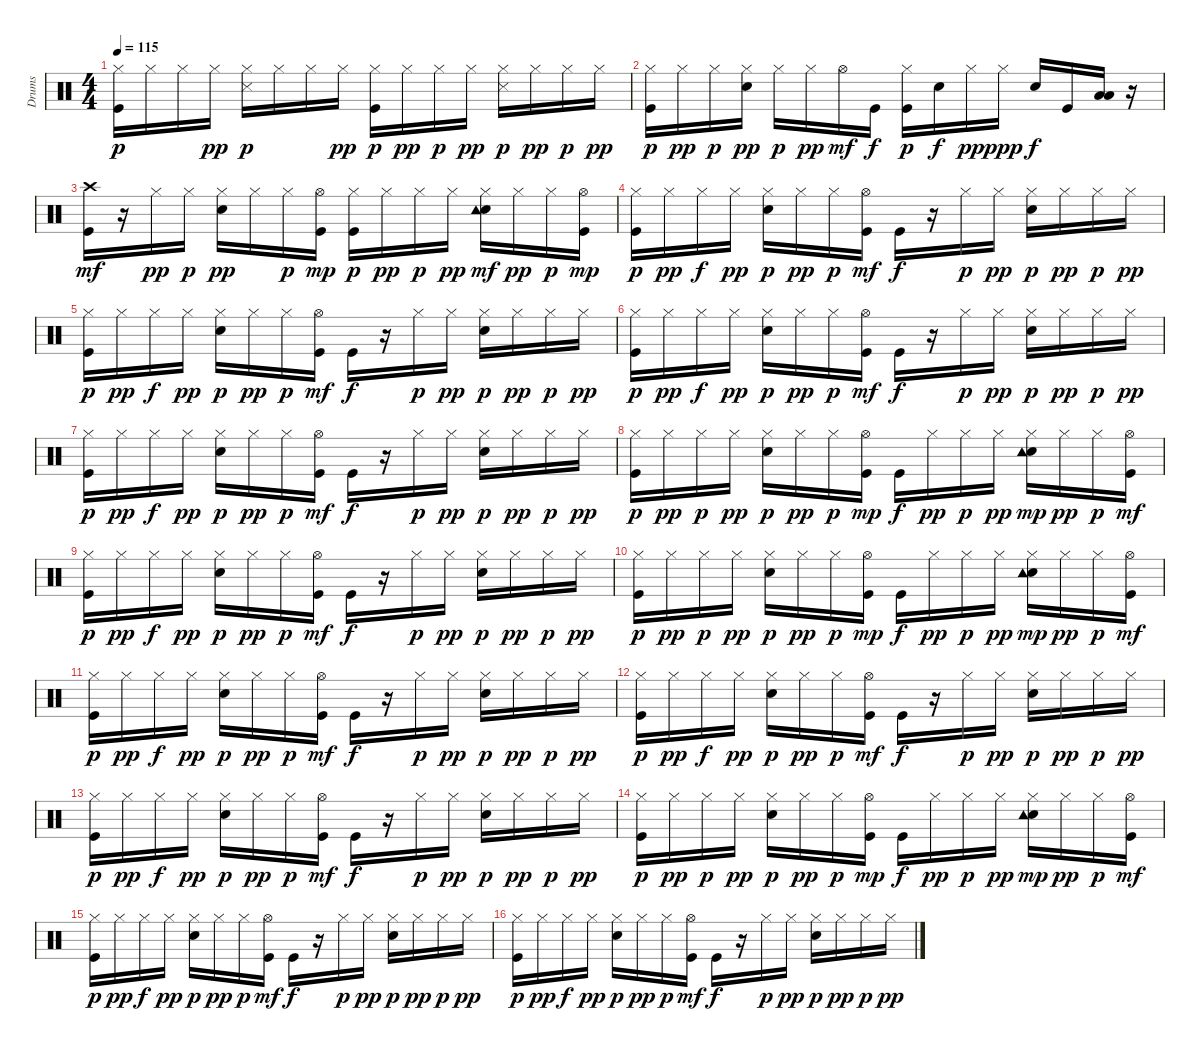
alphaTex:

\track ("Drums  " "Drums  ") {instrument percussion}
\staff {score}
\articulation defaults
\ts (4 4)
\tempo 115
\clef neutral
\ks c
("Kick (hit)" "Hi-Hat (closed)").16{dy p} "Hi-Hat (closed)".16 "Hi-Hat (closed)".16 "Hi-Hat (closed)".16{dy pp} ("Hi-Hat (closed)" "Snare (side stick) 3").16{dy p} "Hi-Hat (closed)".16 "Hi-Hat (closed)".16 "Hi-Hat (closed)".16{dy pp} ("Kick (hit)" "Hi-Hat (closed)").16{dy p} "Hi-Hat (closed)".16{dy pp} "Hi-Hat (closed)".16{dy p} "Hi-Hat (closed)".16{dy pp} ("Hi-Hat (closed)" "Snare (side stick) 3").16{dy p} "Hi-Hat (closed)".16{dy pp} "Hi-Hat (closed)".16{dy p} "Hi-Hat (closed)".16{dy pp} |
("Kick (hit)" "Hi-Hat (closed)").16{dy p} "Hi-Hat (closed)".16{dy pp} "Hi-Hat (closed)".16{dy p} ("Snare (hit) 2" "Hi-Hat (closed)").16{dy pp} "Hi-Hat (closed)".16{dy p} "Hi-Hat (closed)".16{dy pp} "Hi-Hat (open)".16{dy mf} "Kick (hit)".16{dy f} ("Kick (hit)" "Hi-Hat (closed)").16{dy p} "Snare (hit) 2".16{dy f} "Hi-Hat (closed)".16{dy pp} "Hi-Hat (closed)".16{dy ppp} "Snare (hit) 2".16{dy f} "Kick (hit)".16 ("Low Floor Tom (hit)" "Low Tom (hit)").16 r.16 |
("Kick (hit)" "Crash high (hit)").16{dy mf} r.16 "Hi-Hat (closed)".16{dy pp} "Hi-Hat (closed)".16{dy p} ("Snare (hit) 2" "Hi-Hat (closed)").16{dy pp} "Hi-Hat (closed)".16 "Hi-Hat (closed)".16{dy p} ("Kick (hit)" "Hi-Hat (open)").16{dy mp} ("Kick (hit)" "Hi-Hat (closed)").16{dy p} "Hi-Hat (closed)".16{dy pp} "Hi-Hat (closed)".16{dy p} "Hi-Hat (closed)".16{dy pp} ("Snare (hit) 2" "Hi-Hat (closed)" "Tambourine (hit)").16{dy mf} "Hi-Hat (closed)".16{dy pp} "Hi-Hat (closed)".16{dy p} ("Kick (hit)" "Hi-Hat (open)").16{dy mp} |
("Kick (hit)" "Hi-Hat (closed)").16{dy p} "Hi-Hat (closed)".16{dy pp} "Hi-Hat (closed)".16{dy f} "Hi-Hat (closed)".16{dy pp} ("Snare (hit) 2" "Hi-Hat (closed)").16{dy p} "Hi-Hat (closed)".16{dy pp} "Hi-Hat (closed)".16{dy p} ("Kick (hit)" "Hi-Hat (open)").16{dy mf} "Kick (hit)".16{dy f} r.16 "Hi-Hat (closed)".16{dy p} "Hi-Hat (closed)".16{dy pp} ("Snare (hit) 2" "Hi-Hat (closed)").16{dy p} "Hi-Hat (closed)".16{dy pp} "Hi-Hat (closed)".16{dy p} "Hi-Hat (closed)".16{dy pp} |
("Kick (hit)" "Hi-Hat (closed)").16{dy p} "Hi-Hat (closed)".16{dy pp} "Hi-Hat (closed)".16{dy f} "Hi-Hat (closed)".16{dy pp} ("Snare (hit) 2" "Hi-Hat (closed)").16{dy p} "Hi-Hat (closed)".16{dy pp} "Hi-Hat (closed)".16{dy p} ("Kick (hit)" "Hi-Hat (open)").16{dy mf} "Kick (hit)".16{dy f} r.16 "Hi-Hat (closed)".16{dy p} "Hi-Hat (closed)".16{dy pp} ("Snare (hit) 2" "Hi-Hat (closed)").16{dy p} "Hi-Hat (closed)".16{dy pp} "Hi-Hat (closed)".16{dy p} "Hi-Hat (closed)".16{dy pp} |
("Kick (hit)" "Hi-Hat (closed)").16{dy p} "Hi-Hat (closed)".16{dy pp} "Hi-Hat (closed)".16{dy f} "Hi-Hat (closed)".16{dy pp} ("Snare (hit) 2" "Hi-Hat (closed)").16{dy p} "Hi-Hat (closed)".16{dy pp} "Hi-Hat (closed)".16{dy p} ("Kick (hit)" "Hi-Hat (open)").16{dy mf} "Kick (hit)".16{dy f} r.16 "Hi-Hat (closed)".16{dy p} "Hi-Hat (closed)".16{dy pp} ("Snare (hit) 2" "Hi-Hat (closed)").16{dy p} "Hi-Hat (closed)".16{dy pp} "Hi-Hat (closed)".16{dy p} "Hi-Hat (closed)".16{dy pp} |
("Kick (hit)" "Hi-Hat (closed)").16{dy p} "Hi-Hat (closed)".16{dy pp} "Hi-Hat (closed)".16{dy f} "Hi-Hat (closed)".16{dy pp} ("Snare (hit) 2" "Hi-Hat (closed)").16{dy p} "Hi-Hat (closed)".16{dy pp} "Hi-Hat (closed)".16{dy p} ("Kick (hit)" "Hi-Hat (open)").16{dy mf} "Kick (hit)".16{dy f} r.16 "Hi-Hat (closed)".16{dy p} "Hi-Hat (closed)".16{dy pp} ("Snare (hit) 2" "Hi-Hat (closed)").16{dy p} "Hi-Hat (closed)".16{dy pp} "Hi-Hat (closed)".16{dy p} "Hi-Hat (closed)".16{dy pp} |
("Kick (hit)" "Hi-Hat (closed)").16{dy p} "Hi-Hat (closed)".16{dy pp} "Hi-Hat (closed)".16{dy p} "Hi-Hat (closed)".16{dy pp} ("Snare (hit) 2" "Hi-Hat (closed)").16{dy p} "Hi-Hat (closed)".16{dy pp} "Hi-Hat (closed)".16{dy p} ("Kick (hit)" "Hi-Hat (open)").16{dy mp} "Kick (hit)".16{dy f} "Hi-Hat (closed)".16{dy pp} "Hi-Hat (closed)".16{dy p} "Hi-Hat (closed)".16{dy pp} ("Snare (hit) 2" "Hi-Hat (closed)" "Tambourine (hit)").16{dy mp} "Hi-Hat (closed)".16{dy pp} "Hi-Hat (closed)".16{dy p} ("Kick (hit)" "Hi-Hat (open)").16{dy mf} |
("Kick (hit)" "Hi-Hat (closed)").16{dy p} "Hi-Hat (closed)".16{dy pp} "Hi-Hat (closed)".16{dy f} "Hi-Hat (closed)".16{dy pp} ("Snare (hit) 2" "Hi-Hat (closed)").16{dy p} "Hi-Hat (closed)".16{dy pp} "Hi-Hat (closed)".16{dy p} ("Kick (hit)" "Hi-Hat (open)").16{dy mf} "Kick (hit)".16{dy f} r.16 "Hi-Hat (closed)".16{dy p} "Hi-Hat (closed)".16{dy pp} ("Snare (hit) 2" "Hi-Hat (closed)").16{dy p} "Hi-Hat (closed)".16{dy pp} "Hi-Hat (closed)".16{dy p} "Hi-Hat (closed)".16{dy pp} |
("Kick (hit)" "Hi-Hat (closed)").16{dy p} "Hi-Hat (closed)".16{dy pp} "Hi-Hat (closed)".16{dy p} "Hi-Hat (closed)".16{dy pp} ("Snare (hit) 2" "Hi-Hat (closed)").16{dy p} "Hi-Hat (closed)".16{dy pp} "Hi-Hat (closed)".16{dy p} ("Kick (hit)" "Hi-Hat (open)").16{dy mp} "Kick (hit)".16{dy f} "Hi-Hat (closed)".16{dy pp} "Hi-Hat (closed)".16{dy p} "Hi-Hat (closed)".16{dy pp} ("Snare (hit) 2" "Hi-Hat (closed)" "Tambourine (hit)").16{dy mp} "Hi-Hat (closed)".16{dy pp} "Hi-Hat (closed)".16{dy p} ("Kick (hit)" "Hi-Hat (open)").16{dy mf} |
("Kick (hit)" "Hi-Hat (closed)").16{dy p} "Hi-Hat (closed)".16{dy pp} "Hi-Hat (closed)".16{dy f} "Hi-Hat (closed)".16{dy pp} ("Snare (hit) 2" "Hi-Hat (closed)").16{dy p} "Hi-Hat (closed)".16{dy pp} "Hi-Hat (closed)".16{dy p} ("Kick (hit)" "Hi-Hat (open)").16{dy mf} "Kick (hit)".16{dy f} r.16 "Hi-Hat (closed)".16{dy p} "Hi-Hat (closed)".16{dy pp} ("Snare (hit) 2" "Hi-Hat (closed)").16{dy p} "Hi-Hat (closed)".16{dy pp} "Hi-Hat (closed)".16{dy p} "Hi-Hat (closed)".16{dy pp} |
("Kick (hit)" "Hi-Hat (closed)").16{dy p} "Hi-Hat (closed)".16{dy pp} "Hi-Hat (closed)".16{dy f} "Hi-Hat (closed)".16{dy pp} ("Snare (hit) 2" "Hi-Hat (closed)").16{dy p} "Hi-Hat (closed)".16{dy pp} "Hi-Hat (closed)".16{dy p} ("Kick (hit)" "Hi-Hat (open)").16{dy mf} "Kick (hit)".16{dy f} r.16 "Hi-Hat (closed)".16{dy p} "Hi-Hat (closed)".16{dy pp} ("Snare (hit) 2" "Hi-Hat (closed)").16{dy p} "Hi-Hat (closed)".16{dy pp} "Hi-Hat (closed)".16{dy p} "Hi-Hat (closed)".16{dy pp} |
("Kick (hit)" "Hi-Hat (closed)").16{dy p} "Hi-Hat (closed)".16{dy pp} "Hi-Hat (closed)".16{dy f} "Hi-Hat (closed)".16{dy pp} ("Snare (hit) 2" "Hi-Hat (closed)").16{dy p} "Hi-Hat (closed)".16{dy pp} "Hi-Hat (closed)".16{dy p} ("Kick (hit)" "Hi-Hat (open)").16{dy mf} "Kick (hit)".16{dy f} r.16 "Hi-Hat (closed)".16{dy p} "Hi-Hat (closed)".16{dy pp} ("Snare (hit) 2" "Hi-Hat (closed)").16{dy p} "Hi-Hat (closed)".16{dy pp} "Hi-Hat (closed)".16{dy p} "Hi-Hat (closed)".16{dy pp} |
("Kick (hit)" "Hi-Hat (closed)").16{dy p} "Hi-Hat (closed)".16{dy pp} "Hi-Hat (closed)".16{dy p} "Hi-Hat (closed)".16{dy pp} ("Snare (hit) 2" "Hi-Hat (closed)").16{dy p} "Hi-Hat (closed)".16{dy pp} "Hi-Hat (closed)".16{dy p} ("Kick (hit)" "Hi-Hat (open)").16{dy mp} "Kick (hit)".16{dy f} "Hi-Hat (closed)".16{dy pp} "Hi-Hat (closed)".16{dy p} "Hi-Hat (closed)".16{dy pp} ("Snare (hit) 2" "Hi-Hat (closed)" "Tambourine (hit)").16{dy mp} "Hi-Hat (closed)".16{dy pp} "Hi-Hat (closed)".16{dy p} ("Kick (hit)" "Hi-Hat (open)").16{dy mf} |
("Kick (hit)" "Hi-Hat (closed)").16{dy p} "Hi-Hat (closed)".16{dy pp} "Hi-Hat (closed)".16{dy f} "Hi-Hat (closed)".16{dy pp} ("Snare (hit) 2" "Hi-Hat (closed)").16{dy p} "Hi-Hat (closed)".16{dy pp} "Hi-Hat (closed)".16{dy p} ("Kick (hit)" "Hi-Hat (open)").16{dy mf} "Kick (hit)".16{dy f} r.16 "Hi-Hat (closed)".16{dy p} "Hi-Hat (closed)".16{dy pp} ("Snare (hit) 2" "Hi-Hat (closed)").16{dy p} "Hi-Hat (closed)".16{dy pp} "Hi-Hat (closed)".16{dy p} "Hi-Hat (closed)".16{dy pp} |
("Kick (hit)" "Hi-Hat (closed)").16{dy p} "Hi-Hat (closed)".16{dy pp} "Hi-Hat (closed)".16{dy f} "Hi-Hat (closed)".16{dy pp} ("Snare (hit) 2" "Hi-Hat (closed)").16{dy p} "Hi-Hat (closed)".16{dy pp} "Hi-Hat (closed)".16{dy p} ("Kick (hit)" "Hi-Hat (open)").16{dy mf} "Kick (hit)".16{dy f} r.16 "Hi-Hat (closed)".16{dy p} "Hi-Hat (closed)".16{dy pp} ("Snare (hit) 2" "Hi-Hat (closed)").16{dy p} "Hi-Hat (closed)".16{dy pp} "Hi-Hat (closed)".16{dy p} "Hi-Hat (closed)".16{dy pp}
